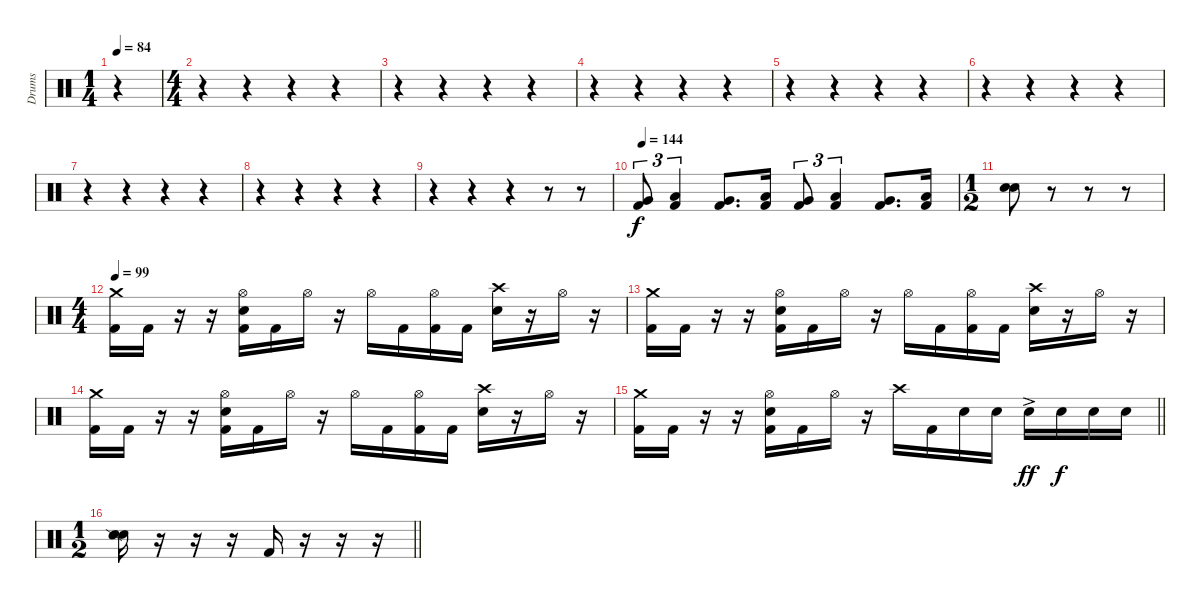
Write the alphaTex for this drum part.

\track ("Drums" "Drums") {instrument percussion}
\staff {score}
\articulation defaults
\ts (1 4)
\tempo 84
\clef neutral
\ks c
r.4{dy f} |
\ts (4 4)
r.4 r.4 r.4 r.4 |
r.4 r.4 r.4 r.4 |
r.4 r.4 r.4 r.4 |
r.4 r.4 r.4 r.4 |
r.4 r.4 r.4 r.4 |
r.4 r.4 r.4 r.4 |
r.4 r.4 r.4 r.4 |
r.4 r.4 r.4 r.8 r.8 |
\tempo 144
("Very Low Tom (hit)" "Kick (hit) 2").8{tu (3 2)} ("Low Floor Tom (hit)" "Kick (hit) 2").4{tu (3 2)} ("Very Low Tom (hit)" "Kick (hit) 2").8{d} ("Low Floor Tom (hit)" "Kick (hit) 2").16 ("Very Low Tom (hit)" "Kick (hit) 2").8{tu (3 2)} ("Low Floor Tom (hit)" "Kick (hit) 2").4{tu (3 2)} ("Very Low Tom (hit)" "Kick (hit) 2").8{d} ("Low Floor Tom (hit)" "Kick (hit) 2").16 |
\ts (1 2)
("Electric Snare (hit)" "Snare (hit) 2").8 r.8 r.8 r.8 |
\ts (4 4)
\tempo 99
("Crash medium (hit)" "Kick (hit) 2").16 "Kick (hit) 2".16 r.16 r.16 ("Hi-Hat (open)" "Electric Snare (hit)" "Kick (hit) 2").16 "Kick (hit) 2".16 "Hi-Hat (open)".16 r.16 "Hi-Hat (open)".16 "Kick (hit) 2".16 ("Hi-Hat (open)" "Kick (hit) 2").16 "Kick (hit) 2".16 ("Crash high (hit)" "Electric Snare (hit)").16 r.16 "Hi-Hat (open)".16 r.16 |
("Crash medium (hit)" "Kick (hit) 2").16 "Kick (hit) 2".16 r.16 r.16 ("Hi-Hat (open)" "Electric Snare (hit)" "Kick (hit) 2").16 "Kick (hit) 2".16 "Hi-Hat (open)".16 r.16 "Hi-Hat (open)".16 "Kick (hit) 2".16 ("Hi-Hat (open)" "Kick (hit) 2").16 "Kick (hit) 2".16 ("Crash high (hit)" "Electric Snare (hit)").16 r.16 "Hi-Hat (open)".16 r.16 |
("Crash medium (hit)" "Kick (hit) 2").16 "Kick (hit) 2".16 r.16 r.16 ("Hi-Hat (open)" "Electric Snare (hit)" "Kick (hit) 2").16 "Kick (hit) 2".16 "Hi-Hat (open)".16 r.16 "Hi-Hat (open)".16 "Kick (hit) 2".16 ("Hi-Hat (open)" "Kick (hit) 2").16 "Kick (hit) 2".16 ("Crash high (hit)" "Electric Snare (hit)").16 r.16 "Hi-Hat (open)".16 r.16 |
\barLineRight lightlight
("Crash medium (hit)" "Kick (hit) 2").16 "Kick (hit) 2".16 r.16 r.16 ("Hi-Hat (open)" "Electric Snare (hit)" "Kick (hit) 2").16 "Kick (hit) 2".16 "Hi-Hat (open)".16 r.16 "Crash high (hit)".16 "Kick (hit) 2".16 "Electric Snare (hit)".16 "Electric Snare (hit)".16 "Electric Snare (hit)"{ac}.16{dy ff} "Electric Snare (hit)".16{dy f} "Electric Snare (hit)".16 "Electric Snare (hit)".16 |
\ts (1 2)
\barLineRight lightlight
("Electric Snare (hit)" "Snare (hit) 2" "Snare (side stick) 2").16 r.16 r.16 r.16 "Kick (hit) 2".16 r.16 r.16 r.16
